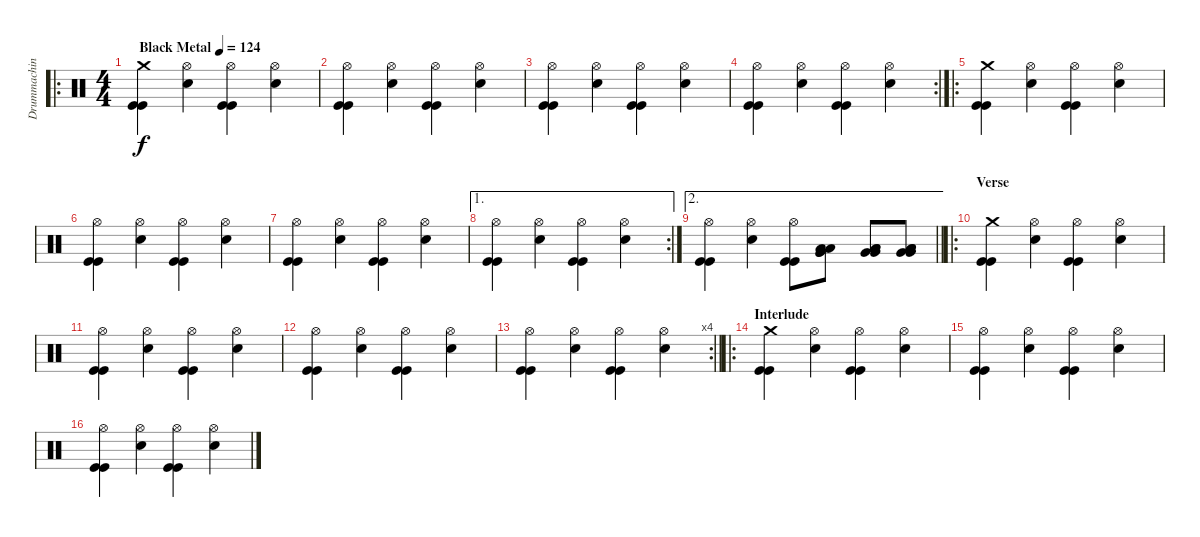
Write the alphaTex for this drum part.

\track ("Drummachine" "Drummachin") {instrument percussion}
\staff {score}
\articulation defaults
\ro
\ts (4 4)
\tempo (124 "Black Metal")
\clef neutral
\ks c
("Crash medium (hit)" "Kick (hit)" "Kick (hit)").4{dy f} ("Hi-Hat (open)" "Snare (hit) 2").4 ("Hi-Hat (open)" "Kick (hit)" "Kick (hit)").4 ("Hi-Hat (open)" "Snare (hit) 2").4 |
("Hi-Hat (open)" "Kick (hit)" "Kick (hit)").4 ("Hi-Hat (open)" "Snare (hit) 2").4 ("Hi-Hat (open)" "Kick (hit)" "Kick (hit)").4 ("Hi-Hat (open)" "Snare (hit) 2").4 |
("Hi-Hat (open)" "Kick (hit)" "Kick (hit)").4 ("Hi-Hat (open)" "Snare (hit) 2").4 ("Hi-Hat (open)" "Kick (hit)" "Kick (hit)").4 ("Hi-Hat (open)" "Snare (hit) 2").4 |
\rc 2
("Hi-Hat (open)" "Kick (hit)" "Kick (hit)").4 ("Hi-Hat (open)" "Snare (hit) 2").4 ("Hi-Hat (open)" "Kick (hit)" "Kick (hit)").4 ("Hi-Hat (open)" "Snare (hit) 2").4 |
\ro
("Crash medium (hit)" "Kick (hit)" "Kick (hit)").4 ("Hi-Hat (open)" "Snare (hit) 2").4 ("Hi-Hat (open)" "Kick (hit)" "Kick (hit)").4 ("Hi-Hat (open)" "Snare (hit) 2").4 |
("Hi-Hat (open)" "Kick (hit)" "Kick (hit)").4 ("Hi-Hat (open)" "Snare (hit) 2").4 ("Hi-Hat (open)" "Kick (hit)" "Kick (hit)").4 ("Hi-Hat (open)" "Snare (hit) 2").4 |
("Hi-Hat (open)" "Kick (hit)" "Kick (hit)").4 ("Hi-Hat (open)" "Snare (hit) 2").4 ("Hi-Hat (open)" "Kick (hit)" "Kick (hit)").4 ("Hi-Hat (open)" "Snare (hit) 2").4 |
\ae 1
\rc 2
("Hi-Hat (open)" "Kick (hit)" "Kick (hit)").4 ("Hi-Hat (open)" "Snare (hit) 2").4 ("Hi-Hat (open)" "Kick (hit)" "Kick (hit)").4 ("Hi-Hat (open)" "Snare (hit) 2").4 |
\ae 2
\barLineRight lightlight
("Hi-Hat (open)" "Kick (hit)" "Kick (hit)").4 ("Hi-Hat (open)" "Snare (hit) 2").4 ("Hi-Hat (open)" "Kick (hit)" "Kick (hit)").8 ("Very Low Tom (hit)" "Very Low Tom (hit)" "Low Tom (hit)" "Low Tom (hit)").8 ("Very Low Tom (hit)" "Very Low Tom (hit)" "Low Tom (hit)" "Low Tom (hit)").8 ("Low Floor Tom (hit)" "Low Floor Tom (hit)" "Very Low Tom (hit)" "Very Low Tom (hit)").8 |
\ro
\section ("" "Verse")
("Crash medium (hit)" "Kick (hit)" "Kick (hit)").4 ("Hi-Hat (open)" "Snare (hit) 2").4 ("Hi-Hat (open)" "Kick (hit)" "Kick (hit)").4 ("Hi-Hat (open)" "Snare (hit) 2").4 |
("Hi-Hat (open)" "Kick (hit)" "Kick (hit)").4 ("Hi-Hat (open)" "Snare (hit) 2").4 ("Hi-Hat (open)" "Kick (hit)" "Kick (hit)").4 ("Hi-Hat (open)" "Snare (hit) 2").4 |
("Hi-Hat (open)" "Kick (hit)" "Kick (hit)").4 ("Hi-Hat (open)" "Snare (hit) 2").4 ("Hi-Hat (open)" "Kick (hit)" "Kick (hit)").4 ("Hi-Hat (open)" "Snare (hit) 2").4 |
\rc 4
\barLineRight lightlight
("Hi-Hat (open)" "Kick (hit)" "Kick (hit)").4 ("Hi-Hat (open)" "Snare (hit) 2").4 ("Hi-Hat (open)" "Kick (hit)" "Kick (hit)").4 ("Hi-Hat (open)" "Snare (hit) 2").4 |
\ro
\section ("" "Interlude")
("Crash medium (hit)" "Kick (hit)" "Kick (hit)").4 ("Hi-Hat (open)" "Snare (hit) 2").4 ("Hi-Hat (open)" "Kick (hit)" "Kick (hit)").4 ("Hi-Hat (open)" "Snare (hit) 2").4 |
("Hi-Hat (open)" "Kick (hit)" "Kick (hit)").4 ("Hi-Hat (open)" "Snare (hit) 2").4 ("Hi-Hat (open)" "Kick (hit)" "Kick (hit)").4 ("Hi-Hat (open)" "Snare (hit) 2").4 |
("Hi-Hat (open)" "Kick (hit)" "Kick (hit)").4 ("Hi-Hat (open)" "Snare (hit) 2").4 ("Hi-Hat (open)" "Kick (hit)" "Kick (hit)").4 ("Hi-Hat (open)" "Snare (hit) 2").4
